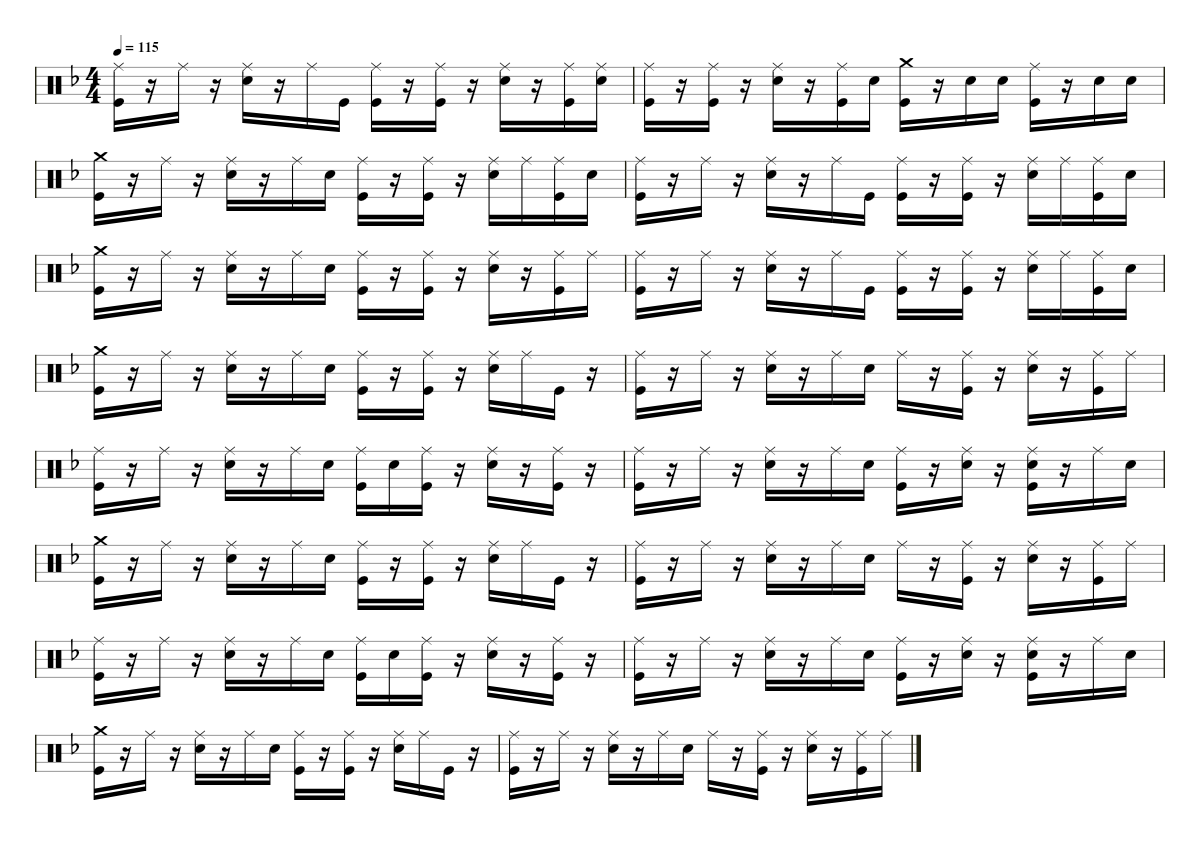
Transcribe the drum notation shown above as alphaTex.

\hideDynamics
\bracketExtendMode groupsimilarinstruments
\singleTrackTrackNamePolicy hidden
\multiTrackTrackNamePolicy hidden
\firstSystemTrackNameOrientation horizontal
\otherSystemsTrackNameOrientation horizontal
\chordDiagramsInScore
\defaultBarNumberDisplay Hide
\track ("Drumkit" "Drums") {instrument percussion}
\staff {score}
\articulation defaults
\ts (4 4)
\tempo 115
\clef neutral
\ks dminor
("Kick (hit)" "Ride (middle)").16{dy f} r.16 "Ride (middle)".16 r.16 ("Ride (middle)" "Snare (hit) 2").16 r.16 "Ride (middle)".16 "Kick (hit)".16 ("Ride (middle)" "Kick (hit)").16 r.16 ("Kick (hit)" "Ride (middle)").16 r.16 ("Ride (middle)" "Snare (hit) 2").16 r.16 ("Kick (hit)" "Ride (middle)").16 ("Snare (hit) 2" "Ride (middle)").16 |
("Ride (middle)" "Kick (hit)").16 r.16 ("Ride (middle)" "Kick (hit)").16 r.16 ("Snare (hit) 2" "Ride (middle)").16 r.16 ("Ride (middle)" "Kick (hit)").16 "Snare (hit) 2".16 ("Crash medium (hit)" "Kick (hit)").16 r.16 "Snare (hit) 2".16 "Snare (hit) 2".16 ("Ride (middle)" "Kick (hit)").16 r.16 "Snare (hit) 2".16 "Snare (hit) 2".16 |
("Kick (hit)" "Crash medium (hit)").16 r.16 "Ride (middle)".16 r.16 ("Snare (hit) 2" "Ride (middle)").16 r.16 "Ride (middle)".16 "Snare (hit) 2".16 ("Ride (middle)" "Kick (hit)").16 r.16 ("Ride (middle)" "Kick (hit)").16 r.16 ("Snare (hit) 2" "Ride (middle)").16 "Ride (middle)".16 ("Kick (hit)" "Ride (middle)").16 "Snare (hit) 2".16 |
("Kick (hit)" "Ride (middle)").16 r.16 "Ride (middle)".16 r.16 ("Ride (middle)" "Snare (hit) 2").16 r.16 "Ride (middle)".16 "Kick (hit)".16 ("Ride (middle)" "Kick (hit)").16 r.16 ("Kick (hit)" "Ride (middle)").16 r.16 ("Ride (middle)" "Snare (hit) 2").16 "Ride (middle)".16 ("Ride (middle)" "Kick (hit)").16 "Snare (hit) 2".16 |
("Kick (hit)" "Crash medium (hit)").16 r.16 "Ride (middle)".16 r.16 ("Ride (middle)" "Snare (hit) 2").16 r.16 "Ride (middle)".16 "Snare (hit) 2".16 ("Kick (hit)" "Ride (middle)").16 r.16 ("Kick (hit)" "Ride (middle)").16 r.16 ("Snare (hit) 2" "Ride (middle)").16 r.16 ("Kick (hit)" "Ride (middle)").16 "Ride (middle)".16 |
("Ride (middle)" "Kick (hit)").16 r.16 "Ride (middle)".16 r.16 ("Snare (hit) 2" "Ride (middle)").16 r.16 "Ride (middle)".16 "Kick (hit)".16 ("Kick (hit)" "Ride (middle)").16 r.16 ("Kick (hit)" "Ride (middle)").16 r.16 ("Ride (middle)" "Snare (hit) 2").16 "Ride (middle)".16 ("Ride (middle)" "Kick (hit)").16 "Snare (hit) 2".16 |
("Kick (hit)" "Crash medium (hit)").16 r.16 "Ride (middle)".16 r.16 ("Ride (middle)" "Snare (hit) 2").16 r.16 "Ride (middle)".16 "Snare (hit) 2".16 ("Kick (hit)" "Ride (middle)").16 r.16 ("Kick (hit)" "Ride (middle)").16 r.16 ("Snare (hit) 2" "Ride (middle)").16 "Ride (middle)".16 "Kick (hit)".16 r.16 |
("Ride (middle)" "Kick (hit)").16 r.16 "Ride (middle)".16 r.16 ("Snare (hit) 2" "Ride (middle)").16 r.16 "Ride (middle)".16 "Snare (hit) 2".16 "Ride (middle)".16 r.16 ("Ride (middle)" "Kick (hit)").16 r.16 ("Snare (hit) 2" "Ride (middle)").16 r.16 ("Ride (middle)" "Kick (hit)").16 "Ride (middle)".16 |
("Ride (middle)" "Kick (hit)").16 r.16 "Ride (middle)".16 r.16 ("Ride (middle)" "Snare (hit) 2").16 r.16 "Ride (middle)".16 "Snare (hit) 2".16 ("Ride (middle)" "Kick (hit)").16 "Snare (hit) 2".16 ("Ride (middle)" "Kick (hit)").16 r.16 ("Snare (hit) 2" "Ride (middle)").16 r.16 ("Ride (middle)" "Kick (hit)").16 r.16 |
("Ride (middle)" "Kick (hit)").16 r.16 "Ride (middle)".16 r.16 ("Ride (middle)" "Snare (hit) 2").16 r.16 "Ride (middle)".16 "Snare (hit) 2".16 ("Ride (middle)" "Kick (hit)").16 r.16 ("Ride (middle)" "Snare (hit) 2").16 r.16 ("Snare (hit) 2" "Kick (hit)" "Ride (middle)").16 r.16 "Ride (middle)".16 "Snare (hit) 2".16 |
("Kick (hit)" "Crash medium (hit)").16 r.16 "Ride (middle)".16 r.16 ("Ride (middle)" "Snare (hit) 2").16 r.16 "Ride (middle)".16 "Snare (hit) 2".16 ("Kick (hit)" "Ride (middle)").16 r.16 ("Kick (hit)" "Ride (middle)").16 r.16 ("Snare (hit) 2" "Ride (middle)").16 "Ride (middle)".16 "Kick (hit)".16 r.16 |
("Ride (middle)" "Kick (hit)").16 r.16 "Ride (middle)".16 r.16 ("Snare (hit) 2" "Ride (middle)").16 r.16 "Ride (middle)".16 "Snare (hit) 2".16 "Ride (middle)".16 r.16 ("Ride (middle)" "Kick (hit)").16 r.16 ("Snare (hit) 2" "Ride (middle)").16 r.16 ("Ride (middle)" "Kick (hit)").16 "Ride (middle)".16 |
("Ride (middle)" "Kick (hit)").16 r.16 "Ride (middle)".16 r.16 ("Ride (middle)" "Snare (hit) 2").16 r.16 "Ride (middle)".16 "Snare (hit) 2".16 ("Ride (middle)" "Kick (hit)").16 "Snare (hit) 2".16 ("Ride (middle)" "Kick (hit)").16 r.16 ("Snare (hit) 2" "Ride (middle)").16 r.16 ("Ride (middle)" "Kick (hit)").16 r.16 |
("Ride (middle)" "Kick (hit)").16 r.16 "Ride (middle)".16 r.16 ("Ride (middle)" "Snare (hit) 2").16 r.16 "Ride (middle)".16 "Snare (hit) 2".16 ("Ride (middle)" "Kick (hit)").16 r.16 ("Ride (middle)" "Snare (hit) 2").16 r.16 ("Snare (hit) 2" "Kick (hit)" "Ride (middle)").16 r.16 "Ride (middle)".16 "Snare (hit) 2".16 |
("Kick (hit)" "Crash medium (hit)").16 r.16 "Ride (middle)".16 r.16 ("Ride (middle)" "Snare (hit) 2").16 r.16 "Ride (middle)".16 "Snare (hit) 2".16 ("Kick (hit)" "Ride (middle)").16 r.16 ("Kick (hit)" "Ride (middle)").16 r.16 ("Snare (hit) 2" "Ride (middle)").16 "Ride (middle)".16 "Kick (hit)".16 r.16 |
("Ride (middle)" "Kick (hit)").16 r.16 "Ride (middle)".16 r.16 ("Snare (hit) 2" "Ride (middle)").16 r.16 "Ride (middle)".16 "Snare (hit) 2".16 "Ride (middle)".16 r.16 ("Ride (middle)" "Kick (hit)").16 r.16 ("Snare (hit) 2" "Ride (middle)").16 r.16 ("Ride (middle)" "Kick (hit)").16 "Ride (middle)".16
